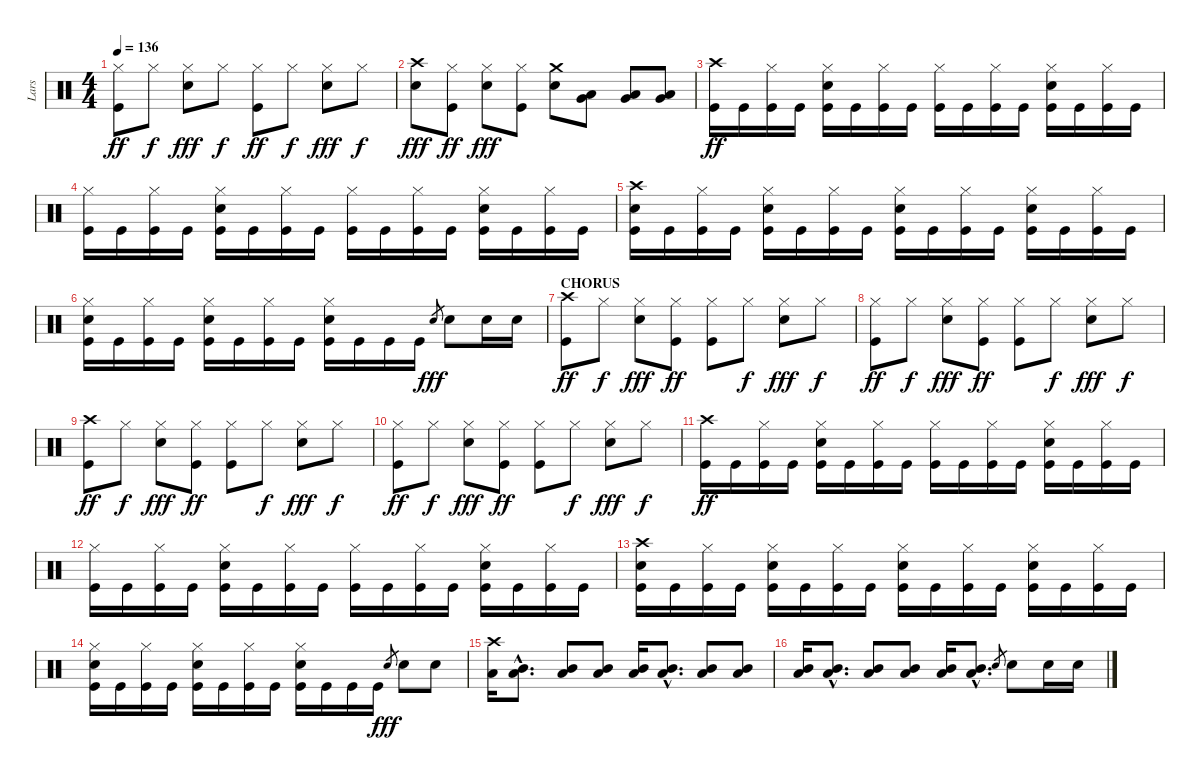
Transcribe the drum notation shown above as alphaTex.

\track ("Lars" "Lars") {instrument percussion}
\staff {score}
\articulation defaults
\ts (4 4)
\tempo 136
\clef neutral
\ks c
("Hi-Hat (closed)" "Kick (hit)").8{dy ff} "Hi-Hat (closed)".8{dy f} ("Hi-Hat (closed)" "Electric Snare (hit)").8{dy fff} "Hi-Hat (closed)".8{dy f} ("Hi-Hat (closed)" "Kick (hit)").8{dy ff} "Hi-Hat (closed)".8{dy f} ("Hi-Hat (closed)" "Electric Snare (hit)").8{dy fff} "Hi-Hat (closed)".8{dy f} |
("Crash high (hit)" "Electric Snare (hit)").8{dy fff} ("Hi-Hat (closed)" "Kick (hit)").8{dy ff} ("Hi-Hat (closed)" "Electric Snare (hit)").8{dy fff} ("Hi-Hat (closed)" "Kick (hit)").8 ("Crash medium (hit)" "Electric Snare (hit)").8 ("Low Tom (hit)" "Very Low Tom (hit)").8 ("Low Tom (hit)" "Very Low Tom (hit)").8 ("Low Tom (hit)" "Very Low Tom (hit)").8 |
("Crash high (hit)" "Kick (hit)").16{dy ff} "Kick (hit)".16 ("Hi-Hat (closed)" "Kick (hit)").16 "Kick (hit)".16 ("Hi-Hat (closed)" "Electric Snare (hit)" "Kick (hit)").16 "Kick (hit)".16 ("Hi-Hat (closed)" "Kick (hit)").16 "Kick (hit)".16 ("Hi-Hat (closed)" "Kick (hit)").16 "Kick (hit)".16 ("Hi-Hat (closed)" "Kick (hit)").16 "Kick (hit)".16 ("Hi-Hat (closed)" "Electric Snare (hit)" "Kick (hit)").16 "Kick (hit)".16 ("Hi-Hat (closed)" "Kick (hit)").16 "Kick (hit)".16 |
("Hi-Hat (closed)" "Kick (hit)").16 "Kick (hit)".16 ("Hi-Hat (closed)" "Kick (hit)").16 "Kick (hit)".16 ("Hi-Hat (closed)" "Electric Snare (hit)" "Kick (hit)").16 "Kick (hit)".16 ("Hi-Hat (closed)" "Kick (hit)").16 "Kick (hit)".16 ("Hi-Hat (closed)" "Kick (hit)").16 "Kick (hit)".16 ("Hi-Hat (closed)" "Kick (hit)").16 "Kick (hit)".16 ("Hi-Hat (closed)" "Electric Snare (hit)" "Kick (hit)").16 "Kick (hit)".16 ("Hi-Hat (closed)" "Kick (hit)").16 "Kick (hit)".16 |
("Crash high (hit)" "Electric Snare (hit)" "Kick (hit)").16 "Kick (hit)".16 ("Hi-Hat (closed)" "Kick (hit)").16 "Kick (hit)".16 ("Hi-Hat (closed)" "Electric Snare (hit)" "Kick (hit)").16 "Kick (hit)".16 ("Hi-Hat (closed)" "Kick (hit)").16 "Kick (hit)".16 ("Hi-Hat (closed)" "Electric Snare (hit)" "Kick (hit)").16 "Kick (hit)".16 ("Hi-Hat (closed)" "Kick (hit)").16 "Kick (hit)".16 ("Hi-Hat (closed)" "Electric Snare (hit)" "Kick (hit)").16 "Kick (hit)".16 ("Hi-Hat (closed)" "Kick (hit)").16 "Kick (hit)".16 |
("Hi-Hat (closed)" "Electric Snare (hit)" "Kick (hit)").16 "Kick (hit)".16 ("Hi-Hat (closed)" "Kick (hit)").16 "Kick (hit)".16 ("Hi-Hat (closed)" "Electric Snare (hit)" "Kick (hit)").16 "Kick (hit)".16 ("Hi-Hat (closed)" "Kick (hit)").16 "Kick (hit)".16 ("Hi-Hat (closed)" "Electric Snare (hit)" "Kick (hit)").16 "Kick (hit)".16 "Kick (hit)".16 "Kick (hit)".16 "Electric Snare (hit)".8{gr dy fff} "Electric Snare (hit)".8 "Electric Snare (hit)".16 "Electric Snare (hit)".16 |
\section ("" "CHORUS")
("Crash high (hit)" "Kick (hit)").8{dy ff} "Hi-Hat (closed)".8{dy f} ("Hi-Hat (closed)" "Electric Snare (hit)").8{dy fff} ("Hi-Hat (closed)" "Kick (hit)").8{dy ff} ("Hi-Hat (closed)" "Kick (hit)").8 "Hi-Hat (closed)".8{dy f} ("Hi-Hat (closed)" "Electric Snare (hit)").8{dy fff} "Hi-Hat (closed)".8{dy f} |
("Hi-Hat (closed)" "Kick (hit)").8{dy ff} "Hi-Hat (closed)".8{dy f} ("Hi-Hat (closed)" "Electric Snare (hit)").8{dy fff} ("Hi-Hat (closed)" "Kick (hit)").8{dy ff} ("Hi-Hat (closed)" "Kick (hit)").8 "Hi-Hat (closed)".8{dy f} ("Hi-Hat (closed)" "Electric Snare (hit)").8{dy fff} "Hi-Hat (closed)".8{dy f} |
("Crash high (hit)" "Kick (hit)").8{dy ff} "Hi-Hat (closed)".8{dy f} ("Hi-Hat (closed)" "Electric Snare (hit)").8{dy fff} ("Hi-Hat (closed)" "Kick (hit)").8{dy ff} ("Hi-Hat (closed)" "Kick (hit)").8 "Hi-Hat (closed)".8{dy f} ("Hi-Hat (closed)" "Electric Snare (hit)").8{dy fff} "Hi-Hat (closed)".8{dy f} |
("Hi-Hat (closed)" "Kick (hit)").8{dy ff} "Hi-Hat (closed)".8{dy f} ("Hi-Hat (closed)" "Electric Snare (hit)").8{dy fff} ("Hi-Hat (closed)" "Kick (hit)").8{dy ff} ("Hi-Hat (closed)" "Kick (hit)").8 "Hi-Hat (closed)".8{dy f} ("Hi-Hat (closed)" "Electric Snare (hit)").8{dy fff} "Hi-Hat (closed)".8{dy f} |
("Crash high (hit)" "Kick (hit)").16{dy ff} "Kick (hit)".16 ("Hi-Hat (closed)" "Kick (hit)").16 "Kick (hit)".16 ("Hi-Hat (closed)" "Electric Snare (hit)" "Kick (hit)").16 "Kick (hit)".16 ("Hi-Hat (closed)" "Kick (hit)").16 "Kick (hit)".16 ("Hi-Hat (closed)" "Kick (hit)").16 "Kick (hit)".16 ("Hi-Hat (closed)" "Kick (hit)").16 "Kick (hit)".16 ("Hi-Hat (closed)" "Electric Snare (hit)" "Kick (hit)").16 "Kick (hit)".16 ("Hi-Hat (closed)" "Kick (hit)").16 "Kick (hit)".16 |
("Hi-Hat (closed)" "Kick (hit)").16 "Kick (hit)".16 ("Hi-Hat (closed)" "Kick (hit)").16 "Kick (hit)".16 ("Hi-Hat (closed)" "Electric Snare (hit)" "Kick (hit)").16 "Kick (hit)".16 ("Hi-Hat (closed)" "Kick (hit)").16 "Kick (hit)".16 ("Hi-Hat (closed)" "Kick (hit)").16 "Kick (hit)".16 ("Hi-Hat (closed)" "Kick (hit)").16 "Kick (hit)".16 ("Hi-Hat (closed)" "Electric Snare (hit)" "Kick (hit)").16 "Kick (hit)".16 ("Hi-Hat (closed)" "Kick (hit)").16 "Kick (hit)".16 |
("Crash high (hit)" "Electric Snare (hit)" "Kick (hit)").16 "Kick (hit)".16 ("Hi-Hat (closed)" "Kick (hit)").16 "Kick (hit)".16 ("Hi-Hat (closed)" "Electric Snare (hit)" "Kick (hit)").16 "Kick (hit)".16 ("Hi-Hat (closed)" "Kick (hit)").16 "Kick (hit)".16 ("Hi-Hat (closed)" "Electric Snare (hit)" "Kick (hit)").16 "Kick (hit)".16 ("Hi-Hat (closed)" "Kick (hit)").16 "Kick (hit)".16 ("Hi-Hat (closed)" "Electric Snare (hit)" "Kick (hit)").16 "Kick (hit)".16 ("Hi-Hat (closed)" "Kick (hit)").16 "Kick (hit)".16 |
("Hi-Hat (closed)" "Electric Snare (hit)" "Kick (hit)").16 "Kick (hit)".16 ("Hi-Hat (closed)" "Kick (hit)").16 "Kick (hit)".16 ("Hi-Hat (closed)" "Electric Snare (hit)" "Kick (hit)").16 "Kick (hit)".16 ("Hi-Hat (closed)" "Kick (hit)").16 "Kick (hit)".16 ("Hi-Hat (closed)" "Electric Snare (hit)" "Kick (hit)").16 "Kick (hit)".16 "Kick (hit)".16 "Kick (hit)".16 "Electric Snare (hit)".8{gr dy fff} "Electric Snare (hit)".8 "Electric Snare (hit)".8 |
("Crash high (hit)" "Low Tom (hit)").16 ("Mid Tom (hit)"{hac} "Low Tom (hit)"{hac}).8{d} ("Mid Tom (hit)" "Low Tom (hit)").8 ("Mid Tom (hit)" "Low Tom (hit)").8 ("Mid Tom (hit)" "Low Tom (hit)").16 ("Mid Tom (hit)"{hac} "Low Tom (hit)"{hac}).8{d} ("Mid Tom (hit)" "Low Tom (hit)").8 ("Mid Tom (hit)" "Low Tom (hit)").8 |
("Mid Tom (hit)" "Low Tom (hit)").16 ("Mid Tom (hit)"{hac} "Low Tom (hit)"{hac}).8{d} ("Mid Tom (hit)" "Low Tom (hit)").8 ("Mid Tom (hit)" "Low Tom (hit)").8 ("Mid Tom (hit)" "Low Tom (hit)").16 ("Mid Tom (hit)"{hac} "Low Tom (hit)"{hac}).8{d} "Electric Snare (hit)".8{gr} "Electric Snare (hit)".8 "Electric Snare (hit)".16 "Electric Snare (hit)".16
